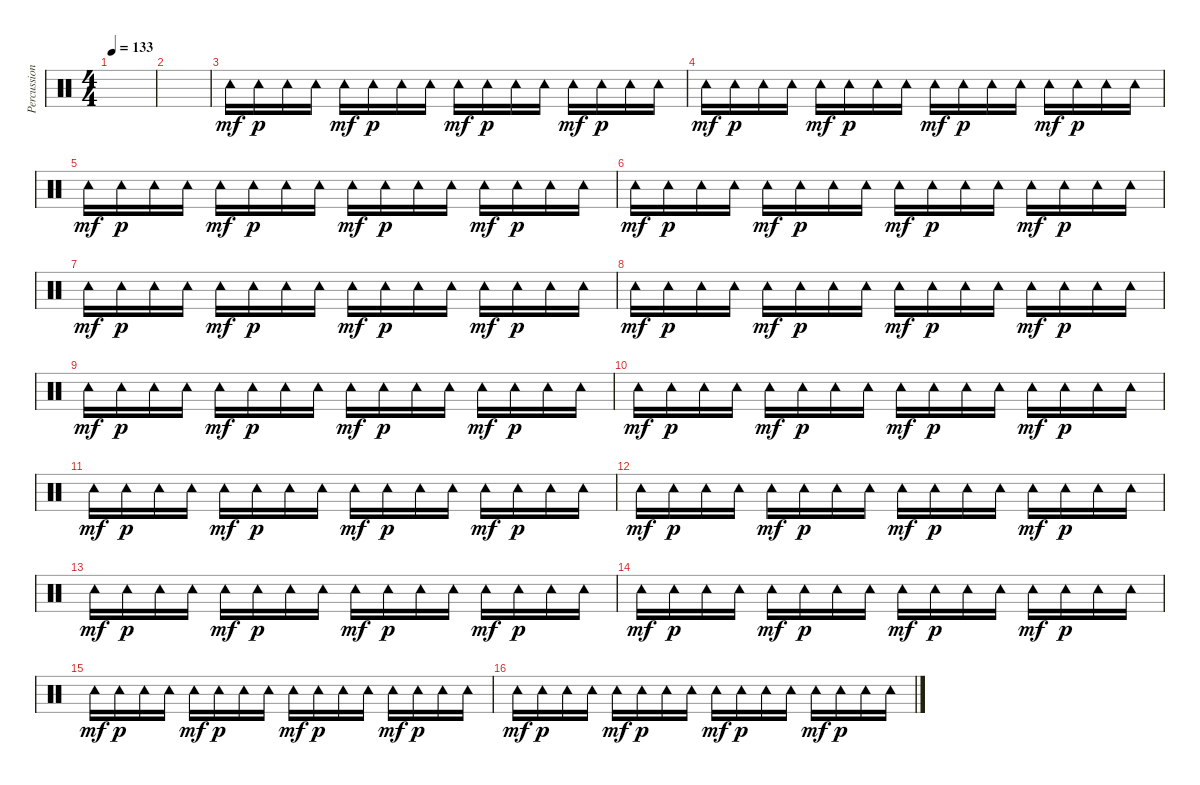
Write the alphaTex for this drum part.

\track ("Percussion" "Percussion") {instrument percussion}
\staff {score}
\articulation defaults
\ts (4 4)
\tempo 133
\clef neutral
\ks c
|
|
"Tambourine (hit)".16{dy mf} "Tambourine (hit)".16{dy p} "Tambourine (hit)".16 "Tambourine (hit)".16 "Tambourine (hit)".16{dy mf} "Tambourine (hit)".16{dy p} "Tambourine (hit)".16 "Tambourine (hit)".16 "Tambourine (hit)".16{dy mf} "Tambourine (hit)".16{dy p} "Tambourine (hit)".16 "Tambourine (hit)".16 "Tambourine (hit)".16{dy mf} "Tambourine (hit)".16{dy p} "Tambourine (hit)".16 "Tambourine (hit)".16 |
"Tambourine (hit)".16{dy mf} "Tambourine (hit)".16{dy p} "Tambourine (hit)".16 "Tambourine (hit)".16 "Tambourine (hit)".16{dy mf} "Tambourine (hit)".16{dy p} "Tambourine (hit)".16 "Tambourine (hit)".16 "Tambourine (hit)".16{dy mf} "Tambourine (hit)".16{dy p} "Tambourine (hit)".16 "Tambourine (hit)".16 "Tambourine (hit)".16{dy mf} "Tambourine (hit)".16{dy p} "Tambourine (hit)".16 "Tambourine (hit)".16 |
"Tambourine (hit)".16{dy mf} "Tambourine (hit)".16{dy p} "Tambourine (hit)".16 "Tambourine (hit)".16 "Tambourine (hit)".16{dy mf} "Tambourine (hit)".16{dy p} "Tambourine (hit)".16 "Tambourine (hit)".16 "Tambourine (hit)".16{dy mf} "Tambourine (hit)".16{dy p} "Tambourine (hit)".16 "Tambourine (hit)".16 "Tambourine (hit)".16{dy mf} "Tambourine (hit)".16{dy p} "Tambourine (hit)".16 "Tambourine (hit)".16 |
"Tambourine (hit)".16{dy mf} "Tambourine (hit)".16{dy p} "Tambourine (hit)".16 "Tambourine (hit)".16 "Tambourine (hit)".16{dy mf} "Tambourine (hit)".16{dy p} "Tambourine (hit)".16 "Tambourine (hit)".16 "Tambourine (hit)".16{dy mf} "Tambourine (hit)".16{dy p} "Tambourine (hit)".16 "Tambourine (hit)".16 "Tambourine (hit)".16{dy mf} "Tambourine (hit)".16{dy p} "Tambourine (hit)".16 "Tambourine (hit)".16 |
"Tambourine (hit)".16{dy mf} "Tambourine (hit)".16{dy p} "Tambourine (hit)".16 "Tambourine (hit)".16 "Tambourine (hit)".16{dy mf} "Tambourine (hit)".16{dy p} "Tambourine (hit)".16 "Tambourine (hit)".16 "Tambourine (hit)".16{dy mf} "Tambourine (hit)".16{dy p} "Tambourine (hit)".16 "Tambourine (hit)".16 "Tambourine (hit)".16{dy mf} "Tambourine (hit)".16{dy p} "Tambourine (hit)".16 "Tambourine (hit)".16 |
"Tambourine (hit)".16{dy mf} "Tambourine (hit)".16{dy p} "Tambourine (hit)".16 "Tambourine (hit)".16 "Tambourine (hit)".16{dy mf} "Tambourine (hit)".16{dy p} "Tambourine (hit)".16 "Tambourine (hit)".16 "Tambourine (hit)".16{dy mf} "Tambourine (hit)".16{dy p} "Tambourine (hit)".16 "Tambourine (hit)".16 "Tambourine (hit)".16{dy mf} "Tambourine (hit)".16{dy p} "Tambourine (hit)".16 "Tambourine (hit)".16 |
"Tambourine (hit)".16{dy mf} "Tambourine (hit)".16{dy p} "Tambourine (hit)".16 "Tambourine (hit)".16 "Tambourine (hit)".16{dy mf} "Tambourine (hit)".16{dy p} "Tambourine (hit)".16 "Tambourine (hit)".16 "Tambourine (hit)".16{dy mf} "Tambourine (hit)".16{dy p} "Tambourine (hit)".16 "Tambourine (hit)".16 "Tambourine (hit)".16{dy mf} "Tambourine (hit)".16{dy p} "Tambourine (hit)".16 "Tambourine (hit)".16 |
"Tambourine (hit)".16{dy mf} "Tambourine (hit)".16{dy p} "Tambourine (hit)".16 "Tambourine (hit)".16 "Tambourine (hit)".16{dy mf} "Tambourine (hit)".16{dy p} "Tambourine (hit)".16 "Tambourine (hit)".16 "Tambourine (hit)".16{dy mf} "Tambourine (hit)".16{dy p} "Tambourine (hit)".16 "Tambourine (hit)".16 "Tambourine (hit)".16{dy mf} "Tambourine (hit)".16{dy p} "Tambourine (hit)".16 "Tambourine (hit)".16 |
"Tambourine (hit)".16{dy mf} "Tambourine (hit)".16{dy p} "Tambourine (hit)".16 "Tambourine (hit)".16 "Tambourine (hit)".16{dy mf} "Tambourine (hit)".16{dy p} "Tambourine (hit)".16 "Tambourine (hit)".16 "Tambourine (hit)".16{dy mf} "Tambourine (hit)".16{dy p} "Tambourine (hit)".16 "Tambourine (hit)".16 "Tambourine (hit)".16{dy mf} "Tambourine (hit)".16{dy p} "Tambourine (hit)".16 "Tambourine (hit)".16 |
"Tambourine (hit)".16{dy mf} "Tambourine (hit)".16{dy p} "Tambourine (hit)".16 "Tambourine (hit)".16 "Tambourine (hit)".16{dy mf} "Tambourine (hit)".16{dy p} "Tambourine (hit)".16 "Tambourine (hit)".16 "Tambourine (hit)".16{dy mf} "Tambourine (hit)".16{dy p} "Tambourine (hit)".16 "Tambourine (hit)".16 "Tambourine (hit)".16{dy mf} "Tambourine (hit)".16{dy p} "Tambourine (hit)".16 "Tambourine (hit)".16 |
"Tambourine (hit)".16{dy mf} "Tambourine (hit)".16{dy p} "Tambourine (hit)".16 "Tambourine (hit)".16 "Tambourine (hit)".16{dy mf} "Tambourine (hit)".16{dy p} "Tambourine (hit)".16 "Tambourine (hit)".16 "Tambourine (hit)".16{dy mf} "Tambourine (hit)".16{dy p} "Tambourine (hit)".16 "Tambourine (hit)".16 "Tambourine (hit)".16{dy mf} "Tambourine (hit)".16{dy p} "Tambourine (hit)".16 "Tambourine (hit)".16 |
"Tambourine (hit)".16{dy mf} "Tambourine (hit)".16{dy p} "Tambourine (hit)".16 "Tambourine (hit)".16 "Tambourine (hit)".16{dy mf} "Tambourine (hit)".16{dy p} "Tambourine (hit)".16 "Tambourine (hit)".16 "Tambourine (hit)".16{dy mf} "Tambourine (hit)".16{dy p} "Tambourine (hit)".16 "Tambourine (hit)".16 "Tambourine (hit)".16{dy mf} "Tambourine (hit)".16{dy p} "Tambourine (hit)".16 "Tambourine (hit)".16 |
"Tambourine (hit)".16{dy mf} "Tambourine (hit)".16{dy p} "Tambourine (hit)".16 "Tambourine (hit)".16 "Tambourine (hit)".16{dy mf} "Tambourine (hit)".16{dy p} "Tambourine (hit)".16 "Tambourine (hit)".16 "Tambourine (hit)".16{dy mf} "Tambourine (hit)".16{dy p} "Tambourine (hit)".16 "Tambourine (hit)".16 "Tambourine (hit)".16{dy mf} "Tambourine (hit)".16{dy p} "Tambourine (hit)".16 "Tambourine (hit)".16 |
"Tambourine (hit)".16{dy mf} "Tambourine (hit)".16{dy p} "Tambourine (hit)".16 "Tambourine (hit)".16 "Tambourine (hit)".16{dy mf} "Tambourine (hit)".16{dy p} "Tambourine (hit)".16 "Tambourine (hit)".16 "Tambourine (hit)".16{dy mf} "Tambourine (hit)".16{dy p} "Tambourine (hit)".16 "Tambourine (hit)".16 "Tambourine (hit)".16{dy mf} "Tambourine (hit)".16{dy p} "Tambourine (hit)".16 "Tambourine (hit)".16
